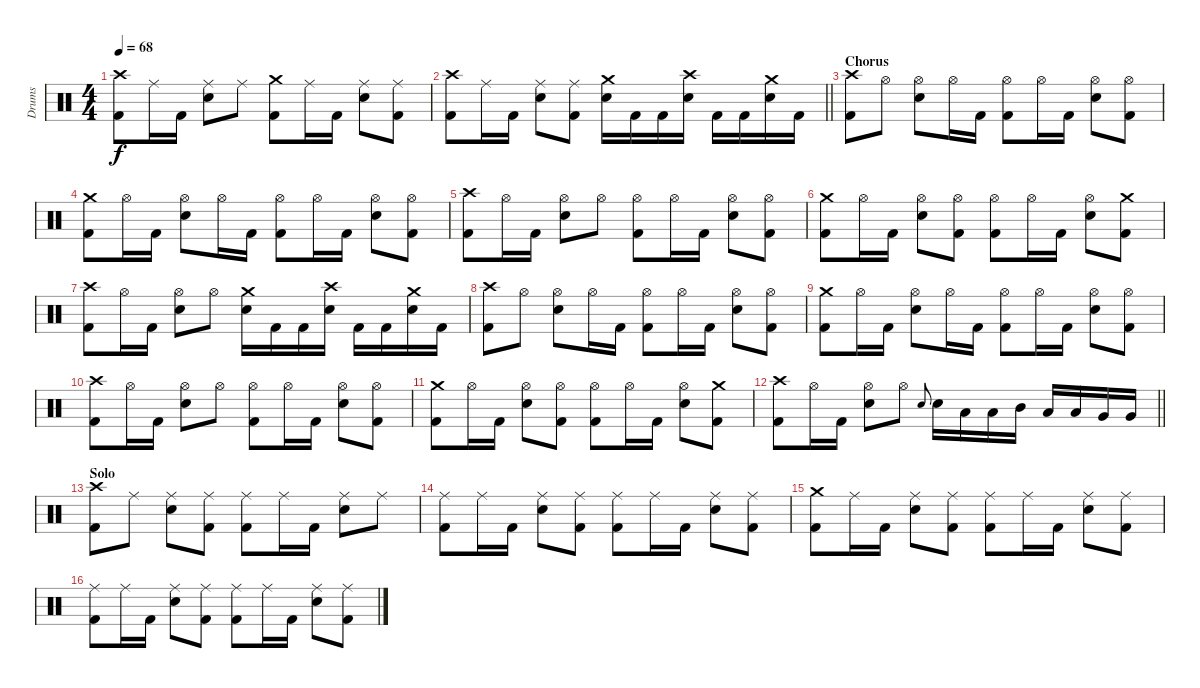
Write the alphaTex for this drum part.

\track ("Drums" "Drums") {instrument percussion}
\staff {score}
\articulation defaults
\ts (4 4)
\tempo 68
\clef neutral
\ks c
("Crash high (hit)" "Kick (hit) 2").8{dy f} "Ride (middle)".16 "Kick (hit) 2".16 ("Ride (middle)" "Snare (hit) 2").8 "Ride (middle)".8 ("Crash medium (hit)" "Kick (hit) 2").8 "Ride (middle)".16 "Kick (hit) 2".16 ("Ride (middle)" "Snare (hit) 2").8 ("Ride (middle)" "Kick (hit) 2").8 |
\barLineRight lightlight
("Crash high (hit)" "Kick (hit) 2").8 "Ride (middle)".16 "Kick (hit) 2".16 ("Ride (middle)" "Snare (hit) 2").8 ("Ride (middle)" "Kick (hit) 2").8 ("Crash medium (hit)" "Snare (hit) 2").16 "Kick (hit) 2".16 "Kick (hit) 2".16 ("Crash high (hit)" "Snare (hit) 2").16 "Kick (hit) 2".16 "Kick (hit) 2".16 ("Crash medium (hit)" "Snare (hit) 2").16 "Kick (hit) 2".16 |
\section ("" "Chorus")
("Crash high (hit)" "Kick (hit) 2").8 "Hi-Hat (open)".8 ("Hi-Hat (open)" "Snare (hit) 2").8 "Hi-Hat (open)".16 "Kick (hit) 2".16 ("Hi-Hat (open)" "Kick (hit) 2").8 "Hi-Hat (open)".16 "Kick (hit) 2".16 ("Hi-Hat (open)" "Snare (hit) 2").8 ("Hi-Hat (open)" "Kick (hit) 2").8 |
("Crash medium (hit)" "Kick (hit) 2").8 "Hi-Hat (open)".16 "Kick (hit) 2".16 ("Hi-Hat (open)" "Snare (hit) 2").8 "Hi-Hat (open)".16 "Kick (hit) 2".16 ("Hi-Hat (open)" "Kick (hit) 2").8 "Hi-Hat (open)".16 "Kick (hit) 2".16 ("Hi-Hat (open)" "Snare (hit) 2").8 ("Hi-Hat (open)" "Kick (hit) 2").8 |
("Crash high (hit)" "Kick (hit) 2").8 "Hi-Hat (open)".16 "Kick (hit) 2".16 ("Hi-Hat (open)" "Snare (hit) 2").8 "Hi-Hat (open)".8 ("Hi-Hat (open)" "Kick (hit) 2").8 "Hi-Hat (open)".16 "Kick (hit) 2".16 ("Hi-Hat (open)" "Snare (hit) 2").8 ("Hi-Hat (open)" "Kick (hit) 2").8 |
("Crash medium (hit)" "Kick (hit) 2").8 "Hi-Hat (open)".16 "Kick (hit) 2".16 ("Hi-Hat (open)" "Snare (hit) 2").8 ("Hi-Hat (open)" "Kick (hit) 2").8 ("Hi-Hat (open)" "Kick (hit) 2").8 "Hi-Hat (open)".16 "Kick (hit) 2".16 ("Hi-Hat (open)" "Snare (hit) 2").8 ("Crash medium (hit)" "Kick (hit) 2").8 |
("Crash high (hit)" "Kick (hit) 2").8 "Hi-Hat (open)".16 "Kick (hit) 2".16 ("Hi-Hat (open)" "Snare (hit) 2").8 "Hi-Hat (open)".8 ("Crash medium (hit)" "Snare (hit) 2").16 "Kick (hit) 2".16 "Kick (hit) 2".16 ("Crash high (hit)" "Snare (hit) 2").16 "Kick (hit) 2".16 "Kick (hit) 2".16 ("Crash medium (hit)" "Snare (hit) 2").16 "Kick (hit) 2".16 |
("Crash high (hit)" "Kick (hit) 2").8 "Hi-Hat (open)".8 ("Hi-Hat (open)" "Snare (hit) 2").8 "Hi-Hat (open)".16 "Kick (hit) 2".16 ("Hi-Hat (open)" "Kick (hit) 2").8 "Hi-Hat (open)".16 "Kick (hit) 2".16 ("Hi-Hat (open)" "Snare (hit) 2").8 ("Hi-Hat (open)" "Kick (hit) 2").8 |
("Crash medium (hit)" "Kick (hit) 2").8 "Hi-Hat (open)".16 "Kick (hit) 2".16 ("Hi-Hat (open)" "Snare (hit) 2").8 "Hi-Hat (open)".16 "Kick (hit) 2".16 ("Hi-Hat (open)" "Kick (hit) 2").8 "Hi-Hat (open)".16 "Kick (hit) 2".16 ("Hi-Hat (open)" "Snare (hit) 2").8 ("Hi-Hat (open)" "Kick (hit) 2").8 |
("Crash high (hit)" "Kick (hit) 2").8 "Hi-Hat (open)".16 "Kick (hit) 2".16 ("Hi-Hat (open)" "Snare (hit) 2").8 "Hi-Hat (open)".8 ("Hi-Hat (open)" "Kick (hit) 2").8 "Hi-Hat (open)".16 "Kick (hit) 2".16 ("Hi-Hat (open)" "Snare (hit) 2").8 ("Hi-Hat (open)" "Kick (hit) 2").8 |
("Crash medium (hit)" "Kick (hit) 2").8 "Hi-Hat (open)".16 "Kick (hit) 2".16 ("Hi-Hat (open)" "Snare (hit) 2").8 ("Hi-Hat (open)" "Kick (hit) 2").8 ("Hi-Hat (open)" "Kick (hit) 2").8 "Hi-Hat (open)".16 "Kick (hit) 2".16 ("Hi-Hat (open)" "Snare (hit) 2").8 ("Crash medium (hit)" "Kick (hit) 2").8 |
\barLineRight lightlight
("Crash high (hit)" "Kick (hit) 2").8 "Hi-Hat (open)".16 "Kick (hit) 2".16 ("Hi-Hat (open)" "Snare (hit) 2").8 "Hi-Hat (open)".8 "Snare (hit) 2".8{gr onbeat} "Snare (hit) 2".16 "Low Tom (hit)".16 "Low Tom (hit)".16 "Mid Tom (hit)".16 "Low Tom (hit)".16 "Low Tom (hit)".16 "Very Low Tom (hit)".16 "Very Low Tom (hit)".16 |
\section ("" "Solo")
("Crash high (hit)" "Kick (hit) 2").8 "Ride (middle)".8 ("Ride (middle)" "Snare (hit) 2").8 ("Ride (middle)" "Kick (hit) 2").8 ("Ride (middle)" "Kick (hit) 2").8 "Ride (middle)".16 "Kick (hit) 2".16 ("Ride (middle)" "Snare (hit) 2").8 "Ride (middle)".8 |
("Ride (middle)" "Kick (hit) 2").8 "Ride (middle)".16 "Kick (hit) 2".16 ("Ride (middle)" "Snare (hit) 2").8 ("Ride (middle)" "Kick (hit) 2").8 ("Ride (middle)" "Kick (hit) 2").8 "Ride (middle)".16 "Kick (hit) 2".16 ("Ride (middle)" "Snare (hit) 2").8 ("Ride (middle)" "Kick (hit) 2").8 |
("Crash medium (hit)" "Kick (hit) 2").8 "Ride (middle)".16 "Kick (hit) 2".16 ("Ride (middle)" "Snare (hit) 2").8 ("Ride (middle)" "Kick (hit) 2").8 ("Ride (middle)" "Kick (hit) 2").8 "Ride (middle)".16 "Kick (hit) 2".16 ("Ride (middle)" "Snare (hit) 2").8 ("Ride (middle)" "Kick (hit) 2").8 |
("Ride (middle)" "Kick (hit) 2").8 "Ride (middle)".16 "Kick (hit) 2".16 ("Ride (middle)" "Snare (hit) 2").8 ("Ride (middle)" "Kick (hit) 2").8 ("Ride (middle)" "Kick (hit) 2").8 "Ride (middle)".16 "Kick (hit) 2".16 ("Ride (middle)" "Snare (hit) 2").8 ("Ride (middle)" "Kick (hit) 2").8
